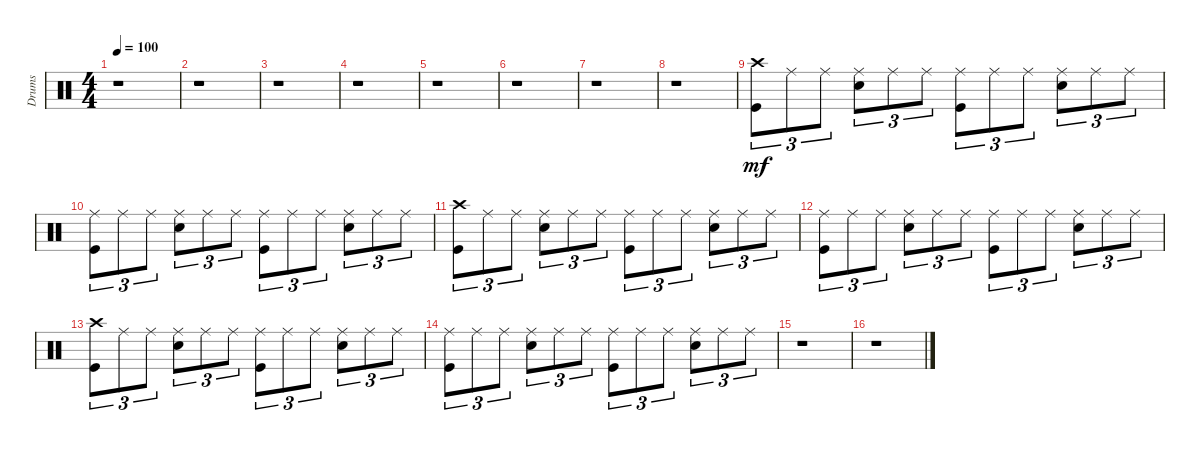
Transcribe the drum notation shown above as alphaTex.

\track ("Drums" "Drums") {instrument percussion}
\staff {score}
\articulation defaults
\ts (4 4)
\tempo 100
\clef neutral
\ks c
r.1{dy f} |
r.1 |
r.1 |
r.1 |
r.1 |
r.1 |
r.1 |
r.1 |
("Crash high (hit)" "Kick (hit)").8{tu (3 2) dy mf} "Ride (middle)".8{tu (3 2)} "Ride (middle)".8{tu (3 2)} ("Ride (middle)" "Snare (hit) 2").8{tu (3 2)} "Ride (middle)".8{tu (3 2)} "Ride (middle)".8{tu (3 2)} ("Ride (middle)" "Kick (hit)").8{tu (3 2)} "Ride (middle)".8{tu (3 2)} "Ride (middle)".8{tu (3 2)} ("Ride (middle)" "Snare (hit) 2").8{tu (3 2)} "Ride (middle)".8{tu (3 2)} "Ride (middle)".8{tu (3 2)} |
("Ride (middle)" "Kick (hit)").8{tu (3 2)} "Ride (middle)".8{tu (3 2)} "Ride (middle)".8{tu (3 2)} ("Ride (middle)" "Snare (hit) 2").8{tu (3 2)} "Ride (middle)".8{tu (3 2)} "Ride (middle)".8{tu (3 2)} ("Ride (middle)" "Kick (hit)").8{tu (3 2)} "Ride (middle)".8{tu (3 2)} "Ride (middle)".8{tu (3 2)} ("Ride (middle)" "Snare (hit) 2").8{tu (3 2)} "Ride (middle)".8{tu (3 2)} "Ride (middle)".8{tu (3 2)} |
("Crash high (hit)" "Kick (hit)").8{tu (3 2)} "Ride (middle)".8{tu (3 2)} "Ride (middle)".8{tu (3 2)} ("Ride (middle)" "Snare (hit) 2").8{tu (3 2)} "Ride (middle)".8{tu (3 2)} "Ride (middle)".8{tu (3 2)} ("Ride (middle)" "Kick (hit)").8{tu (3 2)} "Ride (middle)".8{tu (3 2)} "Ride (middle)".8{tu (3 2)} ("Ride (middle)" "Snare (hit) 2").8{tu (3 2)} "Ride (middle)".8{tu (3 2)} "Ride (middle)".8{tu (3 2)} |
("Ride (middle)" "Kick (hit)").8{tu (3 2)} "Ride (middle)".8{tu (3 2)} "Ride (middle)".8{tu (3 2)} ("Ride (middle)" "Snare (hit) 2").8{tu (3 2)} "Ride (middle)".8{tu (3 2)} "Ride (middle)".8{tu (3 2)} ("Ride (middle)" "Kick (hit)").8{tu (3 2)} "Ride (middle)".8{tu (3 2)} "Ride (middle)".8{tu (3 2)} ("Ride (middle)" "Snare (hit) 2").8{tu (3 2)} "Ride (middle)".8{tu (3 2)} "Ride (middle)".8{tu (3 2)} |
("Crash high (hit)" "Kick (hit)").8{tu (3 2)} "Ride (middle)".8{tu (3 2)} "Ride (middle)".8{tu (3 2)} ("Ride (middle)" "Snare (hit) 2").8{tu (3 2)} "Ride (middle)".8{tu (3 2)} "Ride (middle)".8{tu (3 2)} ("Ride (middle)" "Kick (hit)").8{tu (3 2)} "Ride (middle)".8{tu (3 2)} "Ride (middle)".8{tu (3 2)} ("Ride (middle)" "Snare (hit) 2").8{tu (3 2)} "Ride (middle)".8{tu (3 2)} "Ride (middle)".8{tu (3 2)} |
("Ride (middle)" "Kick (hit)").8{tu (3 2)} "Ride (middle)".8{tu (3 2)} "Ride (middle)".8{tu (3 2)} ("Ride (middle)" "Snare (hit) 2").8{tu (3 2)} "Ride (middle)".8{tu (3 2)} "Ride (middle)".8{tu (3 2)} ("Ride (middle)" "Kick (hit)").8{tu (3 2)} "Ride (middle)".8{tu (3 2)} "Ride (middle)".8{tu (3 2)} ("Ride (middle)" "Snare (hit) 2").8{tu (3 2)} "Ride (middle)".8{tu (3 2)} "Ride (middle)".8{tu (3 2)} |
r.1 |
r.1
